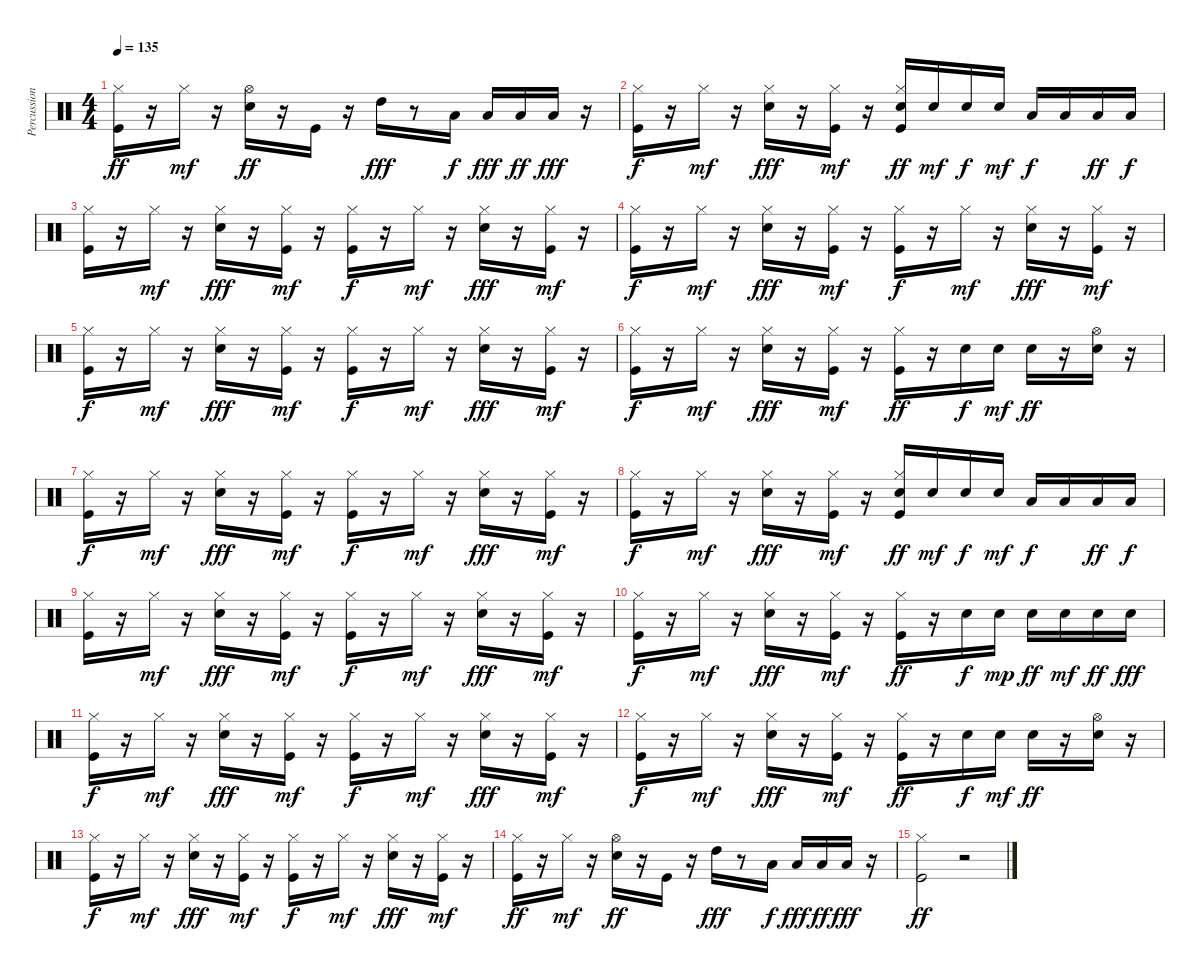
\track ("Percussions" "Percussion") {instrument percussion}
\staff {score}
\articulation defaults
\ts (4 4)
\tempo 135
\clef neutral
\ks c
("Kick (hit)" "Hi-Hat (closed)").16{dy ff} r.16 "Hi-Hat (closed)".16{dy mf} r.16 ("Snare (hit) 2" "Hi-Hat (open)").16{dy ff} r.16 "Kick (hit)".16 r.16 "High Tom (hit)".16{dy fff} r.8 "Low Tom (hit)".16{dy f} "Low Tom (hit)".16{dy fff} "Low Floor Tom (hit)".16{dy ff} "Low Floor Tom (hit)".16{dy fff} r.16 |
("Kick (hit)" "Hi-Hat (closed)").16{dy f} r.16 "Hi-Hat (closed)".16{dy mf} r.16 ("Snare (hit) 2" "Hi-Hat (closed)").16{dy fff} r.16 ("Kick (hit)" "Hi-Hat (closed)").16{dy mf} r.16 ("Kick (hit)" "Snare (hit) 2" "Hi-Hat (closed)").16{dy ff} "Snare (hit) 2".16{dy mf} "Snare (hit) 2".16{dy f} "Snare (hit) 2".16{dy mf} "Low Tom (hit)".16{dy f} "Low Tom (hit)".16 "Low Tom (hit)".16{dy ff} "Low Tom (hit)".16{dy f} |
("Kick (hit)" "Hi-Hat (closed)").16 r.16 "Hi-Hat (closed)".16{dy mf} r.16 ("Snare (hit) 2" "Hi-Hat (closed)").16{dy fff} r.16 ("Kick (hit)" "Hi-Hat (closed)").16{dy mf} r.16 ("Kick (hit)" "Hi-Hat (closed)").16{dy f} r.16 "Hi-Hat (closed)".16{dy mf} r.16 ("Snare (hit) 2" "Hi-Hat (closed)").16{dy fff} r.16 ("Kick (hit)" "Hi-Hat (closed)").16{dy mf} r.16 |
("Kick (hit)" "Hi-Hat (closed)").16{dy f} r.16 "Hi-Hat (closed)".16{dy mf} r.16 ("Snare (hit) 2" "Hi-Hat (closed)").16{dy fff} r.16 ("Kick (hit)" "Hi-Hat (closed)").16{dy mf} r.16 ("Kick (hit)" "Hi-Hat (closed)").16{dy f} r.16 "Hi-Hat (closed)".16{dy mf} r.16 ("Snare (hit) 2" "Hi-Hat (closed)").16{dy fff} r.16 ("Kick (hit)" "Hi-Hat (closed)").16{dy mf} r.16 |
("Kick (hit)" "Hi-Hat (closed)").16{dy f} r.16 "Hi-Hat (closed)".16{dy mf} r.16 ("Snare (hit) 2" "Hi-Hat (closed)").16{dy fff} r.16 ("Kick (hit)" "Hi-Hat (closed)").16{dy mf} r.16 ("Kick (hit)" "Hi-Hat (closed)").16{dy f} r.16 "Hi-Hat (closed)".16{dy mf} r.16 ("Snare (hit) 2" "Hi-Hat (closed)").16{dy fff} r.16 ("Kick (hit)" "Hi-Hat (closed)").16{dy mf} r.16 |
("Kick (hit)" "Hi-Hat (closed)").16{dy f} r.16 "Hi-Hat (closed)".16{dy mf} r.16 ("Snare (hit) 2" "Hi-Hat (closed)").16{dy fff} r.16 ("Kick (hit)" "Hi-Hat (closed)").16{dy mf} r.16 ("Kick (hit)" "Hi-Hat (closed)").16{dy ff} r.16 "Snare (hit) 2".16{dy f} "Snare (hit) 2".16{dy mf} "Snare (hit) 2".16{dy ff} r.16 ("Snare (hit) 2" "Hi-Hat (open)").16 r.16 |
("Kick (hit)" "Hi-Hat (closed)").16{dy f} r.16 "Hi-Hat (closed)".16{dy mf} r.16 ("Snare (hit) 2" "Hi-Hat (closed)").16{dy fff} r.16 ("Kick (hit)" "Hi-Hat (closed)").16{dy mf} r.16 ("Kick (hit)" "Hi-Hat (closed)").16{dy f} r.16 "Hi-Hat (closed)".16{dy mf} r.16 ("Snare (hit) 2" "Hi-Hat (closed)").16{dy fff} r.16 ("Kick (hit)" "Hi-Hat (closed)").16{dy mf} r.16 |
("Kick (hit)" "Hi-Hat (closed)").16{dy f} r.16 "Hi-Hat (closed)".16{dy mf} r.16 ("Snare (hit) 2" "Hi-Hat (closed)").16{dy fff} r.16 ("Kick (hit)" "Hi-Hat (closed)").16{dy mf} r.16 ("Kick (hit)" "Snare (hit) 2" "Hi-Hat (closed)").16{dy ff} "Snare (hit) 2".16{dy mf} "Snare (hit) 2".16{dy f} "Snare (hit) 2".16{dy mf} "Low Tom (hit)".16{dy f} "Low Tom (hit)".16 "Low Tom (hit)".16{dy ff} "Low Tom (hit)".16{dy f} |
("Kick (hit)" "Hi-Hat (closed)").16 r.16 "Hi-Hat (closed)".16{dy mf} r.16 ("Snare (hit) 2" "Hi-Hat (closed)").16{dy fff} r.16 ("Kick (hit)" "Hi-Hat (closed)").16{dy mf} r.16 ("Kick (hit)" "Hi-Hat (closed)").16{dy f} r.16 "Hi-Hat (closed)".16{dy mf} r.16 ("Snare (hit) 2" "Hi-Hat (closed)").16{dy fff} r.16 ("Kick (hit)" "Hi-Hat (closed)").16{dy mf} r.16 |
("Kick (hit)" "Hi-Hat (closed)").16{dy f} r.16 "Hi-Hat (closed)".16{dy mf} r.16 ("Snare (hit) 2" "Hi-Hat (closed)").16{dy fff} r.16 ("Kick (hit)" "Hi-Hat (closed)").16{dy mf} r.16 ("Kick (hit)" "Hi-Hat (closed)").16{dy ff} r.16 "Snare (hit) 2".16{dy f} "Snare (hit) 2".16{dy mp} "Snare (hit) 2".16{dy ff} "Snare (hit) 2".16{dy mf} "Snare (hit) 2".16{dy ff} "Snare (hit) 2".16{dy fff} |
("Kick (hit)" "Hi-Hat (closed)").16{dy f} r.16 "Hi-Hat (closed)".16{dy mf} r.16 ("Snare (hit) 2" "Hi-Hat (closed)").16{dy fff} r.16 ("Kick (hit)" "Hi-Hat (closed)").16{dy mf} r.16 ("Kick (hit)" "Hi-Hat (closed)").16{dy f} r.16 "Hi-Hat (closed)".16{dy mf} r.16 ("Snare (hit) 2" "Hi-Hat (closed)").16{dy fff} r.16 ("Kick (hit)" "Hi-Hat (closed)").16{dy mf} r.16 |
("Kick (hit)" "Hi-Hat (closed)").16{dy f} r.16 "Hi-Hat (closed)".16{dy mf} r.16 ("Snare (hit) 2" "Hi-Hat (closed)").16{dy fff} r.16 ("Kick (hit)" "Hi-Hat (closed)").16{dy mf} r.16 ("Kick (hit)" "Hi-Hat (closed)").16{dy ff} r.16 "Snare (hit) 2".16{dy f} "Snare (hit) 2".16{dy mf} "Snare (hit) 2".16{dy ff} r.16 ("Snare (hit) 2" "Hi-Hat (open)").16 r.16 |
("Kick (hit)" "Hi-Hat (closed)").16{dy f} r.16 "Hi-Hat (closed)".16{dy mf} r.16 ("Snare (hit) 2" "Hi-Hat (closed)").16{dy fff} r.16 ("Kick (hit)" "Hi-Hat (closed)").16{dy mf} r.16 ("Kick (hit)" "Hi-Hat (closed)").16{dy f} r.16 "Hi-Hat (closed)".16{dy mf} r.16 ("Snare (hit) 2" "Hi-Hat (closed)").16{dy fff} r.16 ("Kick (hit)" "Hi-Hat (closed)").16{dy mf} r.16 |
("Kick (hit)" "Hi-Hat (closed)").16{dy ff} r.16 "Hi-Hat (closed)".16{dy mf} r.16 ("Snare (hit) 2" "Hi-Hat (open)").16{dy ff} r.16 "Kick (hit)".16 r.16 "High Tom (hit)".16{dy fff} r.8 "Low Tom (hit)".16{dy f} "Low Tom (hit)".16{dy fff} "Low Floor Tom (hit)".16{dy ff} "Low Floor Tom (hit)".16{dy fff} r.16 |
("Kick (hit)" "Hi-Hat (closed)").2{dy ff} r.2
